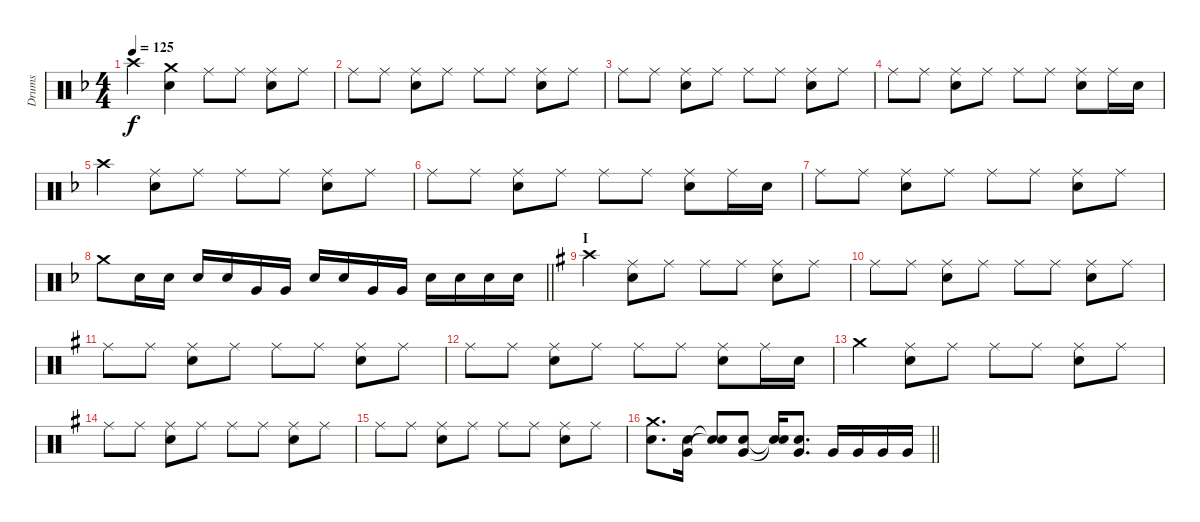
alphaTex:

\track ("Drums" "Drums") {instrument percussion}
\staff {score}
\articulation defaults
\ts (4 4)
\tempo 125
\clef neutral
\ks f "Crash high (hit)".4{dy f}
("Crash medium (hit)" "Snare (hit) 2").4 "Ride (middle)".8 "Ride (middle)".8 ("Ride (middle)" "Snare (hit) 2").8 "Ride (middle)".8 |
"Ride (middle)".8 "Ride (middle)".8 ("Ride (middle)" "Snare (hit) 2").8 "Ride (middle)".8 "Ride (middle)".8 "Ride (middle)".8 ("Ride (middle)" "Snare (hit) 2").8 "Ride (middle)".8 |
"Ride (middle)".8 "Ride (middle)".8 ("Ride (middle)" "Snare (hit) 2").8 "Ride (middle)".8 "Ride (middle)".8 "Ride (middle)".8 ("Ride (middle)" "Snare (hit) 2").8 "Ride (middle)".8 |
"Ride (middle)".8 "Ride (middle)".8 ("Ride (middle)" "Snare (hit) 2").8 "Ride (middle)".8 "Ride (middle)".8 "Ride (middle)".8 ("Ride (middle)" "Snare (hit) 2").8 "Ride (middle)".16 "Snare (hit) 2".16 |
"Crash high (hit)".4 ("Ride (middle)" "Snare (hit) 2").8 "Ride (middle)".8 "Ride (middle)".8 "Ride (middle)".8 ("Ride (middle)" "Snare (hit) 2").8 "Ride (middle)".8 |
"Ride (middle)".8 "Ride (middle)".8 ("Ride (middle)" "Snare (hit) 2").8 "Ride (middle)".8 "Ride (middle)".8 "Ride (middle)".8 ("Ride (middle)" "Snare (hit) 2").8 "Ride (middle)".16 "Snare (hit) 2".16 |
"Ride (middle)".8 "Ride (middle)".8 ("Ride (middle)" "Snare (hit) 2").8 "Ride (middle)".8 "Ride (middle)".8 "Ride (middle)".8 ("Ride (middle)" "Snare (hit) 2").8 "Ride (middle)".8 |
\barLineRight lightlight "Crash medium (hit)".8 "Snare (hit) 2".16 "Snare (hit) 2".16 "Snare (hit) 2".16 "Snare (hit) 2".16 "Very Low Tom (hit)".16 "Very Low Tom (hit)".16 "Snare (hit) 2".16 "Snare (hit) 2".16 "Very Low Tom (hit)".16 "Very Low Tom (hit)".16 "Snare (hit) 2".16 "Snare (hit) 2".16 "Snare (hit) 2".16 "Snare (hit) 2".16
|
\section ("" "I")
\ks g "Crash high (hit)".4
("Ride (middle)" "Snare (hit) 2").8 "Ride (middle)".8 "Ride (middle)".8 "Ride (middle)".8 ("Ride (middle)" "Snare (hit) 2").8 "Ride (middle)".8 |
"Ride (middle)".8 "Ride (middle)".8 ("Ride (middle)" "Snare (hit) 2").8 "Ride (middle)".8 "Ride (middle)".8 "Ride (middle)".8 ("Ride (middle)" "Snare (hit) 2").8 "Ride (middle)".8 |
"Ride (middle)".8 "Ride (middle)".8 ("Ride (middle)" "Snare (hit) 2").8 "Ride (middle)".8 "Ride (middle)".8 "Ride (middle)".8 ("Ride (middle)" "Snare (hit) 2").8 "Ride (middle)".8 |
"Ride (middle)".8 "Ride (middle)".8 ("Ride (middle)" "Snare (hit) 2").8 "Ride (middle)".8 "Ride (middle)".8 "Ride (middle)".8 ("Ride (middle)" "Snare (hit) 2").8 "Ride (middle)".16 "Snare (hit) 2".16 |
"Crash medium (hit)".4 ("Ride (middle)" "Snare (hit) 2").8 "Ride (middle)".8 "Ride (middle)".8 "Ride (middle)".8 ("Ride (middle)" "Snare (hit) 2").8 "Ride (middle)".8 |
"Ride (middle)".8 "Ride (middle)".8 ("Ride (middle)" "Snare (hit) 2").8 "Ride (middle)".8 "Ride (middle)".8 "Ride (middle)".8 ("Ride (middle)" "Snare (hit) 2").8 "Ride (middle)".8 |
"Ride (middle)".8 "Ride (middle)".8 ("Ride (middle)" "Snare (hit) 2").8 "Ride (middle)".8 "Ride (middle)".8 "Ride (middle)".8 ("Ride (middle)" "Snare (hit) 2").8 "Ride (middle)".8 |
\barLineRight lightlight
("Crash medium (hit)" "Snare (hit) 2").8{d} ("Snare (hit) 2" "Very Low Tom (hit)").16 ("Snare (hit)"{t} "Snare (hit)"{t}).8 ("Snare (hit) 2" "Very Low Tom (hit)").8 ("Snare (hit)"{t} "Snare (hit)"{t}).16 ("Snare (hit) 2" "Very Low Tom (hit)").8{d} "Very Low Tom (hit)".16 "Very Low Tom (hit)".16 "Very Low Tom (hit)".16 "Very Low Tom (hit)".16
